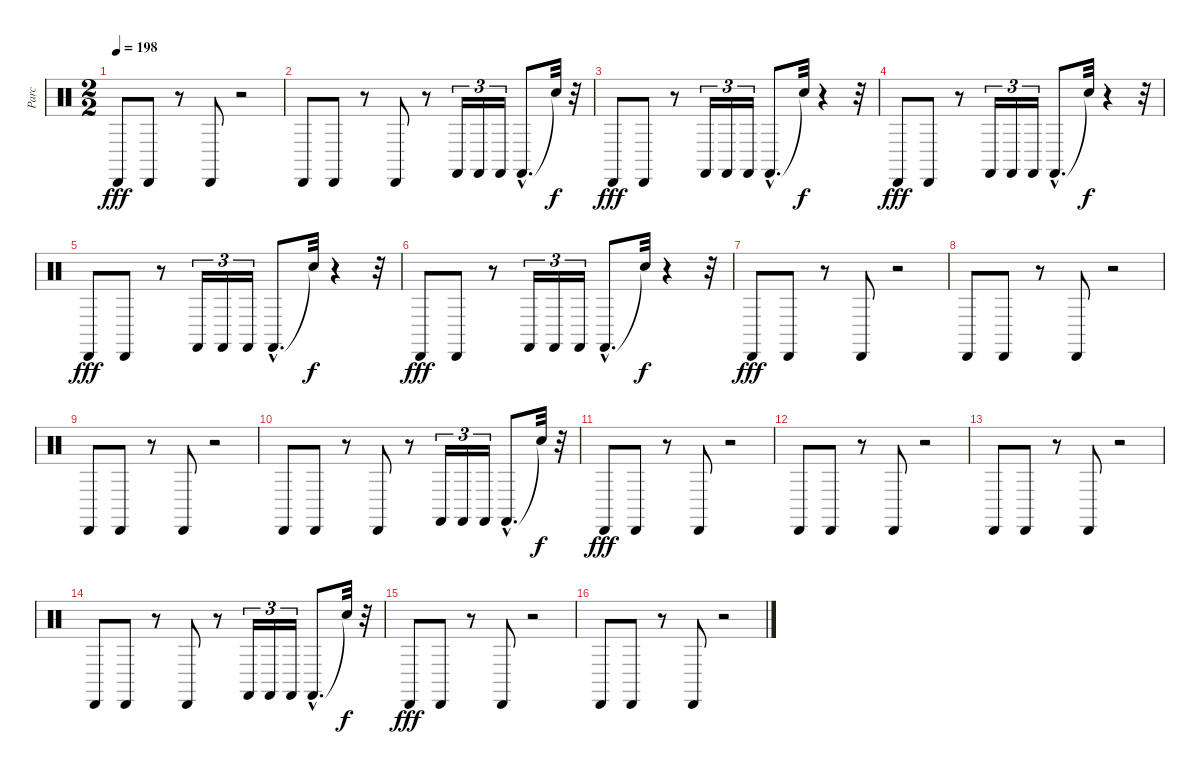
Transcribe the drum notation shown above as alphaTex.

\track ("Parc" "Parc") {instrument percussion}
\staff {score}
\articulation defaults
\ts (2 2)
\tempo 198
\clef neutral
\ks c "Cabasa (hit)".8{dy fff} "Cabasa (hit)".8
r.8 "Cabasa (hit)".8 r.2 |
"Cabasa (hit)".8 "Cabasa (hit)".8 r.8 "Cabasa (hit)".8 r.8 "Castanets (hit)".16{tu (3 2)} "Castanets (hit)".16{tu (3 2)} "Castanets (hit)".16{tu (3 2)} "Castanets (hit)"{hac}.8{d} "Snare (hit)"{t}.32{dy f} r.32 |
"Cabasa (hit)".8{dy fff} "Cabasa (hit)".8 r.8 "Castanets (hit)".16{tu (3 2)} "Castanets (hit)".16{tu (3 2)} "Castanets (hit)".16{tu (3 2)} "Castanets (hit)"{hac}.8{d} "Snare (hit)"{t}.32{dy f} r.4 r.32 |
"Cabasa (hit)".8{dy fff} "Cabasa (hit)".8 r.8 "Castanets (hit)".16{tu (3 2)} "Castanets (hit)".16{tu (3 2)} "Castanets (hit)".16{tu (3 2)} "Castanets (hit)"{hac}.8{d} "Snare (hit)"{t}.32{dy f} r.4 r.32 |
"Cabasa (hit)".8{dy fff} "Cabasa (hit)".8 r.8 "Castanets (hit)".16{tu (3 2)} "Castanets (hit)".16{tu (3 2)} "Castanets (hit)".16{tu (3 2)} "Castanets (hit)"{hac}.8{d} "Snare (hit)"{t}.32{dy f} r.4 r.32 |
"Cabasa (hit)".8{dy fff} "Cabasa (hit)".8 r.8 "Castanets (hit)".16{tu (3 2)} "Castanets (hit)".16{tu (3 2)} "Castanets (hit)".16{tu (3 2)} "Castanets (hit)"{hac}.8{d} "Snare (hit)"{t}.32{dy f} r.4 r.32 |
"Cabasa (hit)".8{dy fff} "Cabasa (hit)".8 r.8 "Cabasa (hit)".8 r.2 |
"Cabasa (hit)".8 "Cabasa (hit)".8 r.8 "Cabasa (hit)".8 r.2 |
"Cabasa (hit)".8 "Cabasa (hit)".8 r.8 "Cabasa (hit)".8 r.2 |
"Cabasa (hit)".8 "Cabasa (hit)".8 r.8 "Cabasa (hit)".8 r.8 "Castanets (hit)".16{tu (3 2)} "Castanets (hit)".16{tu (3 2)} "Castanets (hit)".16{tu (3 2)} "Castanets (hit)"{hac}.8{d} "Snare (hit)"{t}.32{dy f} r.32 |
"Cabasa (hit)".8{dy fff} "Cabasa (hit)".8 r.8 "Cabasa (hit)".8 r.2 |
"Cabasa (hit)".8 "Cabasa (hit)".8 r.8 "Cabasa (hit)".8 r.2 |
"Cabasa (hit)".8 "Cabasa (hit)".8 r.8 "Cabasa (hit)".8 r.2 |
"Cabasa (hit)".8 "Cabasa (hit)".8 r.8 "Cabasa (hit)".8 r.8 "Castanets (hit)".16{tu (3 2)} "Castanets (hit)".16{tu (3 2)} "Castanets (hit)".16{tu (3 2)} "Castanets (hit)"{hac}.8{d} "Snare (hit)"{t}.32{dy f} r.32 |
"Cabasa (hit)".8{dy fff} "Cabasa (hit)".8 r.8 "Cabasa (hit)".8 r.2 |
"Cabasa (hit)".8 "Cabasa (hit)".8 r.8 "Cabasa (hit)".8 r.2
